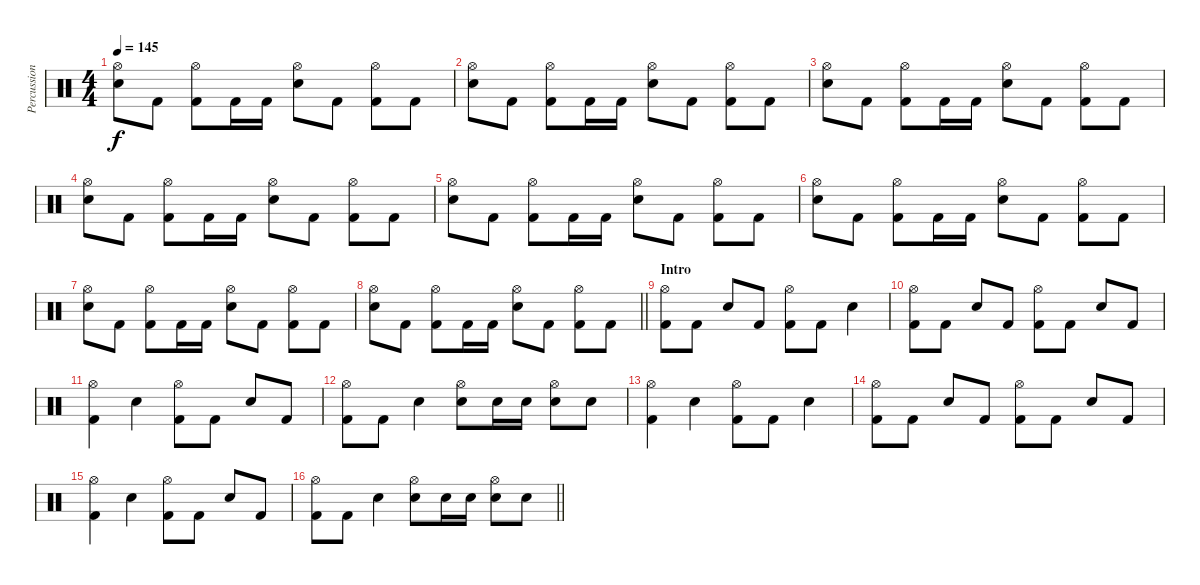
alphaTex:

\track ("Percussion" "Percussion") {instrument percussion}
\staff {score}
\articulation defaults
\ts (4 4)
\tempo 145
\clef neutral
\ks c
("Hi-Hat (open)" "Electric Snare (hit)").8{dy f} "Kick (hit) 2".8 ("Hi-Hat (open)" "Kick (hit) 2").8 "Kick (hit) 2".16 "Kick (hit) 2".16 ("Hi-Hat (open)" "Electric Snare (hit)").8 "Kick (hit) 2".8 ("Hi-Hat (open)" "Kick (hit) 2").8 "Kick (hit) 2".8 |
("Hi-Hat (open)" "Electric Snare (hit)").8 "Kick (hit) 2".8 ("Hi-Hat (open)" "Kick (hit) 2").8 "Kick (hit) 2".16 "Kick (hit) 2".16 ("Hi-Hat (open)" "Electric Snare (hit)").8 "Kick (hit) 2".8 ("Hi-Hat (open)" "Kick (hit) 2").8 "Kick (hit) 2".8 |
("Hi-Hat (open)" "Electric Snare (hit)").8 "Kick (hit) 2".8 ("Hi-Hat (open)" "Kick (hit) 2").8 "Kick (hit) 2".16 "Kick (hit) 2".16 ("Hi-Hat (open)" "Electric Snare (hit)").8 "Kick (hit) 2".8 ("Hi-Hat (open)" "Kick (hit) 2").8 "Kick (hit) 2".8 |
("Hi-Hat (open)" "Electric Snare (hit)").8 "Kick (hit) 2".8 ("Hi-Hat (open)" "Kick (hit) 2").8 "Kick (hit) 2".16 "Kick (hit) 2".16 ("Hi-Hat (open)" "Electric Snare (hit)").8 "Kick (hit) 2".8 ("Hi-Hat (open)" "Kick (hit) 2").8 "Kick (hit) 2".8 |
("Hi-Hat (open)" "Electric Snare (hit)").8 "Kick (hit) 2".8 ("Hi-Hat (open)" "Kick (hit) 2").8 "Kick (hit) 2".16 "Kick (hit) 2".16 ("Hi-Hat (open)" "Electric Snare (hit)").8 "Kick (hit) 2".8 ("Hi-Hat (open)" "Kick (hit) 2").8 "Kick (hit) 2".8 |
("Hi-Hat (open)" "Electric Snare (hit)").8 "Kick (hit) 2".8 ("Hi-Hat (open)" "Kick (hit) 2").8 "Kick (hit) 2".16 "Kick (hit) 2".16 ("Hi-Hat (open)" "Electric Snare (hit)").8 "Kick (hit) 2".8 ("Hi-Hat (open)" "Kick (hit) 2").8 "Kick (hit) 2".8 |
("Hi-Hat (open)" "Electric Snare (hit)").8 "Kick (hit) 2".8 ("Hi-Hat (open)" "Kick (hit) 2").8 "Kick (hit) 2".16 "Kick (hit) 2".16 ("Hi-Hat (open)" "Electric Snare (hit)").8 "Kick (hit) 2".8 ("Hi-Hat (open)" "Kick (hit) 2").8 "Kick (hit) 2".8 |
\barLineRight lightlight
("Hi-Hat (open)" "Electric Snare (hit)").8 "Kick (hit) 2".8 ("Hi-Hat (open)" "Kick (hit) 2").8 "Kick (hit) 2".16 "Kick (hit) 2".16 ("Hi-Hat (open)" "Electric Snare (hit)").8 "Kick (hit) 2".8 ("Hi-Hat (open)" "Kick (hit) 2").8 "Kick (hit) 2".8 |
\section ("" "Intro")
("Hi-Hat (open)" "Kick (hit) 2").8 "Kick (hit) 2".8 "Electric Snare (hit)".8 "Kick (hit) 2".8 ("Hi-Hat (open)" "Kick (hit) 2").8 "Kick (hit) 2".8 "Electric Snare (hit)".4 |
("Hi-Hat (open)" "Kick (hit) 2").8 "Kick (hit) 2".8 "Electric Snare (hit)".8 "Kick (hit) 2".8 ("Hi-Hat (open)" "Kick (hit) 2").8 "Kick (hit) 2".8 "Electric Snare (hit)".8 "Kick (hit) 2".8 |
("Hi-Hat (open)" "Kick (hit) 2").4 "Electric Snare (hit)".4 ("Hi-Hat (open)" "Kick (hit) 2").8 "Kick (hit) 2".8 "Electric Snare (hit)".8 "Kick (hit) 2".8 |
("Hi-Hat (open)" "Kick (hit) 2").8 "Kick (hit) 2".8 "Electric Snare (hit)".4 ("Hi-Hat (open)" "Electric Snare (hit)").8 "Electric Snare (hit)".16 "Electric Snare (hit)".16 ("Hi-Hat (open)" "Electric Snare (hit)").8 "Electric Snare (hit)".8 |
("Hi-Hat (open)" "Kick (hit) 2").4 "Electric Snare (hit)".4 ("Hi-Hat (open)" "Kick (hit) 2").8 "Kick (hit) 2".8 "Electric Snare (hit)".4 |
("Hi-Hat (open)" "Kick (hit) 2").8 "Kick (hit) 2".8 "Electric Snare (hit)".8 "Kick (hit) 2".8 ("Hi-Hat (open)" "Kick (hit) 2").8 "Kick (hit) 2".8 "Electric Snare (hit)".8 "Kick (hit) 2".8 |
("Hi-Hat (open)" "Kick (hit) 2").4 "Electric Snare (hit)".4 ("Hi-Hat (open)" "Kick (hit) 2").8 "Kick (hit) 2".8 "Electric Snare (hit)".8 "Kick (hit) 2".8 |
\barLineRight lightlight
("Hi-Hat (open)" "Kick (hit) 2").8 "Kick (hit) 2".8 "Electric Snare (hit)".4 ("Hi-Hat (open)" "Electric Snare (hit)").8 "Electric Snare (hit)".16 "Electric Snare (hit)".16 ("Hi-Hat (open)" "Electric Snare (hit)").8 "Electric Snare (hit)".8
